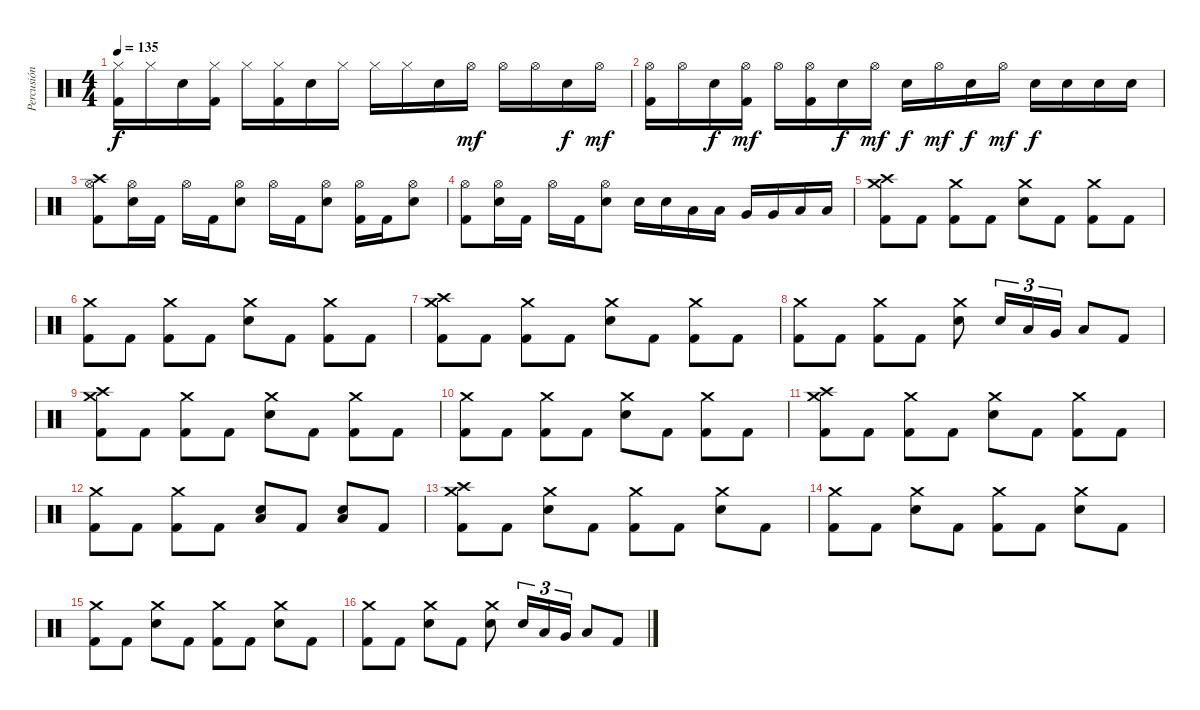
\track ("Percusión" "Percusión") {instrument percussion}
\staff {score}
\articulation defaults
\ts (4 4)
\tempo 135
\clef neutral
\ks c
("Hi-Hat (closed)" "Kick (hit) 2").16{dy f} "Hi-Hat (closed)".16 "Electric Snare (hit)".16 ("Hi-Hat (closed)" "Kick (hit) 2").16 "Hi-Hat (closed)".16 ("Hi-Hat (closed)" "Kick (hit) 2").16 "Electric Snare (hit)".16 "Hi-Hat (closed)".16 "Hi-Hat (closed)".16 "Hi-Hat (closed)".16 "Electric Snare (hit)".16 "Hi-Hat (open)".16{dy mf} "Hi-Hat (open)".16 "Hi-Hat (open)".16 "Electric Snare (hit)".16{dy f} "Hi-Hat (open)".16{dy mf} |
("Hi-Hat (open)" "Kick (hit) 2").16 "Hi-Hat (open)".16 "Electric Snare (hit)".16{dy f} ("Hi-Hat (open)" "Kick (hit) 2").16{dy mf} "Hi-Hat (open)".16 ("Hi-Hat (open)" "Kick (hit) 2").16 "Electric Snare (hit)".16{dy f} "Hi-Hat (open)".16{dy mf} "Electric Snare (hit)".16{dy f} "Hi-Hat (open)".16{dy mf} "Electric Snare (hit)".16{dy f} "Hi-Hat (open)".16{dy mf} "Electric Snare (hit)".16{dy f} "Electric Snare (hit)".16 "Electric Snare (hit)".16 "Electric Snare (hit)".16 |
("Crash high (hit)" "Hi-Hat (open)" "Kick (hit) 2").8 ("Hi-Hat (open)" "Electric Snare (hit)").16 "Kick (hit) 2".16 "Hi-Hat (open)".16 "Kick (hit) 2".16 ("Hi-Hat (open)" "Electric Snare (hit)").8 "Hi-Hat (open)".16 "Kick (hit) 2".16 ("Hi-Hat (open)" "Electric Snare (hit)").8 ("Hi-Hat (open)" "Kick (hit) 2").16 "Kick (hit) 2".16 ("Hi-Hat (open)" "Electric Snare (hit)").8 |
("Hi-Hat (open)" "Kick (hit) 2").8 ("Hi-Hat (open)" "Electric Snare (hit)").16 "Kick (hit) 2".16 "Hi-Hat (open)".16 "Kick (hit) 2".16 ("Hi-Hat (open)" "Electric Snare (hit)").8 "Electric Snare (hit)".16 "Electric Snare (hit)".16 "Low Tom (hit)".16 "Low Tom (hit)".16 "Very Low Tom (hit)".16 "Very Low Tom (hit)".16 "Low Floor Tom (hit)".16 "Low Floor Tom (hit)".16 |
("Crash high (hit)" "Crash medium (hit)" "Kick (hit) 2").8 "Kick (hit) 2".8 ("Crash medium (hit)" "Kick (hit) 2").8 "Kick (hit) 2".8 ("Crash medium (hit)" "Electric Snare (hit)").8 "Kick (hit) 2".8 ("Crash medium (hit)" "Kick (hit) 2").8 "Kick (hit) 2".8 |
("Crash medium (hit)" "Kick (hit) 2").8 "Kick (hit) 2".8 ("Crash medium (hit)" "Kick (hit) 2").8 "Kick (hit) 2".8 ("Crash medium (hit)" "Electric Snare (hit)").8 "Kick (hit) 2".8 ("Crash medium (hit)" "Kick (hit) 2").8 "Kick (hit) 2".8 |
("Crash high (hit)" "Crash medium (hit)" "Kick (hit) 2").8 "Kick (hit) 2".8 ("Crash medium (hit)" "Kick (hit) 2").8 "Kick (hit) 2".8 ("Crash medium (hit)" "Electric Snare (hit)").8 "Kick (hit) 2".8 ("Crash medium (hit)" "Kick (hit) 2").8 "Kick (hit) 2".8 |
("Crash medium (hit)" "Kick (hit) 2").8 "Kick (hit) 2".8 ("Crash medium (hit)" "Kick (hit) 2").8 "Kick (hit) 2".8 ("Crash medium (hit)" "Electric Snare (hit)").8 "Electric Snare (hit)".16{tu (3 2)} "Low Tom (hit)".16{tu (3 2)} "Very Low Tom (hit)".16{tu (3 2)} "Low Floor Tom (hit)".8 "Kick (hit) 2".8 |
("Crash high (hit)" "Crash medium (hit)" "Kick (hit) 2").8 "Kick (hit) 2".8 ("Crash medium (hit)" "Kick (hit) 2").8 "Kick (hit) 2".8 ("Crash medium (hit)" "Electric Snare (hit)").8 "Kick (hit) 2".8 ("Crash medium (hit)" "Kick (hit) 2").8 "Kick (hit) 2".8 |
("Crash medium (hit)" "Kick (hit) 2").8 "Kick (hit) 2".8 ("Crash medium (hit)" "Kick (hit) 2").8 "Kick (hit) 2".8 ("Crash medium (hit)" "Electric Snare (hit)").8 "Kick (hit) 2".8 ("Crash medium (hit)" "Kick (hit) 2").8 "Kick (hit) 2".8 |
("Crash high (hit)" "Crash medium (hit)" "Kick (hit) 2").8 "Kick (hit) 2".8 ("Crash medium (hit)" "Kick (hit) 2").8 "Kick (hit) 2".8 ("Crash medium (hit)" "Electric Snare (hit)").8 "Kick (hit) 2".8 ("Crash medium (hit)" "Kick (hit) 2").8 "Kick (hit) 2".8 |
("Crash medium (hit)" "Kick (hit) 2").8 "Kick (hit) 2".8 ("Crash medium (hit)" "Kick (hit) 2").8 "Kick (hit) 2".8 ("Low Floor Tom (hit)" "Electric Snare (hit)").8 "Kick (hit) 2".8 ("Low Floor Tom (hit)" "Electric Snare (hit)").8 "Kick (hit) 2".8 |
("Crash high (hit)" "Crash medium (hit)" "Kick (hit) 2").8 "Kick (hit) 2".8 ("Crash medium (hit)" "Electric Snare (hit)").8 "Kick (hit) 2".8 ("Crash medium (hit)" "Kick (hit) 2").8 "Kick (hit) 2".8 ("Crash medium (hit)" "Electric Snare (hit)").8 "Kick (hit) 2".8 |
("Crash medium (hit)" "Kick (hit) 2").8 "Kick (hit) 2".8 ("Crash medium (hit)" "Electric Snare (hit)").8 "Kick (hit) 2".8 ("Crash medium (hit)" "Kick (hit) 2").8 "Kick (hit) 2".8 ("Crash medium (hit)" "Electric Snare (hit)").8 "Kick (hit) 2".8 |
("Crash medium (hit)" "Kick (hit) 2").8 "Kick (hit) 2".8 ("Crash medium (hit)" "Electric Snare (hit)").8 "Kick (hit) 2".8 ("Crash medium (hit)" "Kick (hit) 2").8 "Kick (hit) 2".8 ("Crash medium (hit)" "Electric Snare (hit)").8 "Kick (hit) 2".8 |
("Crash medium (hit)" "Kick (hit) 2").8 "Kick (hit) 2".8 ("Crash medium (hit)" "Electric Snare (hit)").8 "Kick (hit) 2".8 ("Crash medium (hit)" "Electric Snare (hit)").8 "Electric Snare (hit)".16{tu (3 2)} "Low Tom (hit)".16{tu (3 2)} "Very Low Tom (hit)".16{tu (3 2)} "Low Floor Tom (hit)".8 "Kick (hit) 2".8
